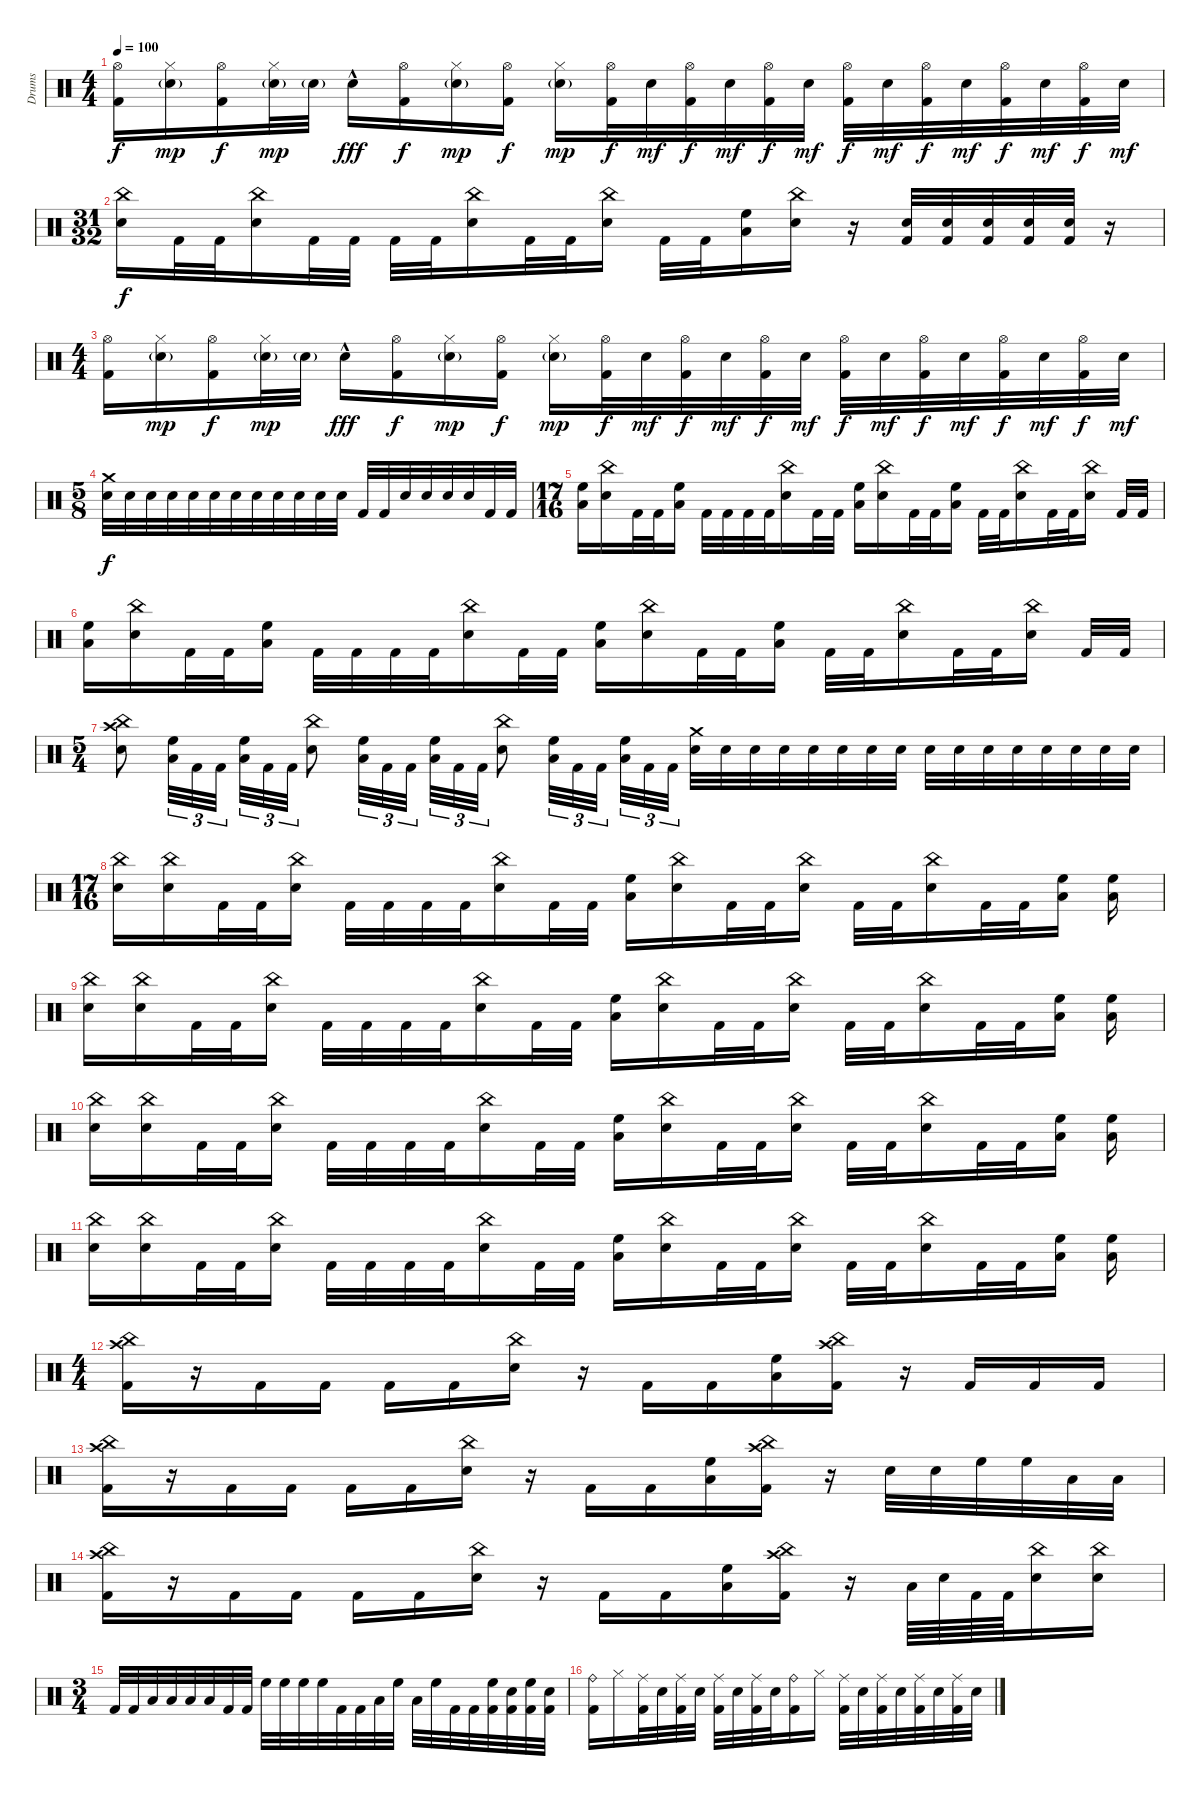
\track ("Drums" "Drums") {instrument percussion}
\staff {score}
\articulation defaults
\ts (4 4)
\tempo 100
\clef neutral
\ks c
("Hi-Hat (open)" "Kick (hit) 2").16{dy f} ("Hi-Hat (closed)" "Electric Snare (hit)"{g}).16{dy mp} ("Hi-Hat (open)" "Kick (hit) 2").16{dy f} ("Hi-Hat (closed)" "Electric Snare (hit)"{g}).32{dy mp} "Electric Snare (hit)"{g}.32 "Electric Snare (hit)"{hac}.16{dy fff} ("Hi-Hat (open)" "Kick (hit) 2").16{dy f} ("Hi-Hat (closed)" "Electric Snare (hit)"{g}).16{dy mp} ("Hi-Hat (open)" "Kick (hit) 2").16{dy f} ("Hi-Hat (closed)" "Electric Snare (hit)"{g}).16{dy mp} ("Hi-Hat (open)" "Kick (hit) 2").32{dy f} "Electric Snare (hit)".32{dy mf} ("Hi-Hat (open)" "Kick (hit) 2").32{dy f} "Electric Snare (hit)".32{dy mf} ("Hi-Hat (open)" "Kick (hit) 2").32{dy f} "Electric Snare (hit)".32{dy mf} ("Hi-Hat (open)" "Kick (hit) 2").32{dy f} "Electric Snare (hit)".32{dy mf} ("Hi-Hat (open)" "Kick (hit) 2").32{dy f} "Electric Snare (hit)".32{dy mf} ("Hi-Hat (open)" "Kick (hit) 2").32{dy f} "Electric Snare (hit)".32{dy mf} ("Hi-Hat (open)" "Kick (hit) 2").32{dy f} "Electric Snare (hit)".32{dy mf} |
\ts (31 32)
("China (hit)" "Electric Snare (hit)").16{dy f} "Kick (hit) 2".32 "Kick (hit) 2".32 ("Electric Snare (hit)" "China (hit)").16 "Kick (hit) 2".32 "Kick (hit) 2".32 "Kick (hit) 2".32 "Kick (hit) 2".32 ("China (hit)" "Electric Snare (hit)").16 "Kick (hit) 2".32 "Kick (hit) 2".32 ("Electric Snare (hit)" "China (hit)").16 "Kick (hit) 2".32 "Kick (hit) 2".32 ("Low Tom (hit)" "High Floor Tom (hit)").16 ("Electric Snare (hit)" "China (hit)").16 r.16 ("Electric Snare (hit)" "Kick (hit) 2").32 ("Electric Snare (hit)" "Kick (hit) 2").32 ("Electric Snare (hit)" "Kick (hit) 2").32 ("Electric Snare (hit)" "Kick (hit) 2").32 ("Electric Snare (hit)" "Kick (hit) 2").32 r.16 |
\ts (4 4)
("Hi-Hat (open)" "Kick (hit) 2").16 ("Hi-Hat (closed)" "Electric Snare (hit)"{g}).16{dy mp} ("Hi-Hat (open)" "Kick (hit) 2").16{dy f} ("Hi-Hat (closed)" "Electric Snare (hit)"{g}).32{dy mp} "Electric Snare (hit)"{g}.32 "Electric Snare (hit)"{hac}.16{dy fff} ("Hi-Hat (open)" "Kick (hit) 2").16{dy f} ("Hi-Hat (closed)" "Electric Snare (hit)"{g}).16{dy mp} ("Hi-Hat (open)" "Kick (hit) 2").16{dy f} ("Hi-Hat (closed)" "Electric Snare (hit)"{g}).16{dy mp} ("Hi-Hat (open)" "Kick (hit) 2").32{dy f} "Electric Snare (hit)".32{dy mf} ("Hi-Hat (open)" "Kick (hit) 2").32{dy f} "Electric Snare (hit)".32{dy mf} ("Hi-Hat (open)" "Kick (hit) 2").32{dy f} "Electric Snare (hit)".32{dy mf} ("Hi-Hat (open)" "Kick (hit) 2").32{dy f} "Electric Snare (hit)".32{dy mf} ("Hi-Hat (open)" "Kick (hit) 2").32{dy f} "Electric Snare (hit)".32{dy mf} ("Hi-Hat (open)" "Kick (hit) 2").32{dy f} "Electric Snare (hit)".32{dy mf} ("Hi-Hat (open)" "Kick (hit) 2").32{dy f} "Electric Snare (hit)".32{dy mf} |
\ts (5 8)
("Crash medium (hit)" "Electric Snare (hit)").32{dy f} "Electric Snare (hit)".32{volume 0} "Electric Snare (hit)".32{volume 16} "Electric Snare (hit)".32 "Electric Snare (hit)".32 "Electric Snare (hit)".32 "Electric Snare (hit)".32 "Electric Snare (hit)".32 "Electric Snare (hit)".32 "Electric Snare (hit)".32 "Electric Snare (hit)".32 "Electric Snare (hit)".32 "Kick (hit) 2".32 "Kick (hit) 2".32 "Electric Snare (hit)".32 "Electric Snare (hit)".32 "Electric Snare (hit)".32 "Electric Snare (hit)".32 "Kick (hit) 2".32 "Kick (hit) 2".32 |
\ts (17 16)
("Low Tom (hit)" "High Floor Tom (hit)").16 ("Electric Snare (hit)" "China (hit)").16 "Kick (hit) 2".32 "Kick (hit) 2".32 ("Low Tom (hit)" "High Floor Tom (hit)").16 "Kick (hit) 2".32 "Kick (hit) 2".32 "Kick (hit) 2".32 "Kick (hit) 2".32 ("Electric Snare (hit)" "China (hit)").16 "Kick (hit) 2".32 "Kick (hit) 2".32 ("Low Tom (hit)" "High Floor Tom (hit)").16 ("Electric Snare (hit)" "China (hit)").16 "Kick (hit) 2".32 "Kick (hit) 2".32 ("Low Tom (hit)" "High Floor Tom (hit)").16 "Kick (hit) 2".32 "Kick (hit) 2".32 ("Electric Snare (hit)" "China (hit)").16 "Kick (hit) 2".32 "Kick (hit) 2".32 ("Electric Snare (hit)" "China (hit)").16 "Kick (hit) 2".32 "Kick (hit) 2".32 |
("Low Tom (hit)" "High Floor Tom (hit)").16 ("Electric Snare (hit)" "China (hit)").16 "Kick (hit) 2".32 "Kick (hit) 2".32 ("Low Tom (hit)" "High Floor Tom (hit)").16 "Kick (hit) 2".32 "Kick (hit) 2".32 "Kick (hit) 2".32 "Kick (hit) 2".32 ("Electric Snare (hit)" "China (hit)").16 "Kick (hit) 2".32 "Kick (hit) 2".32 ("Low Tom (hit)" "High Floor Tom (hit)").16 ("Electric Snare (hit)" "China (hit)").16 "Kick (hit) 2".32 "Kick (hit) 2".32 ("Low Tom (hit)" "High Floor Tom (hit)").16 "Kick (hit) 2".32 "Kick (hit) 2".32 ("Electric Snare (hit)" "China (hit)").16 "Kick (hit) 2".32 "Kick (hit) 2".32 ("Electric Snare (hit)" "China (hit)").16 "Kick (hit) 2".32 "Kick (hit) 2".32 |
\ts (5 4)
("Crash high (hit)" "China (hit)" "Electric Snare (hit)").8 ("Low Tom (hit)" "High Floor Tom (hit)").32{tu (3 2)} "Kick (hit) 2".32{tu (3 2)} "Kick (hit) 2".32{tu (3 2) beam splitsecondary} ("Low Tom (hit)" "High Floor Tom (hit)").32{tu (3 2)} "Kick (hit) 2".32{tu (3 2)} "Kick (hit) 2".32{tu (3 2)} ("China (hit)" "Electric Snare (hit)").8 ("Low Tom (hit)" "High Floor Tom (hit)").32{tu (3 2)} "Kick (hit) 2".32{tu (3 2)} "Kick (hit) 2".32{tu (3 2) beam splitsecondary} ("Low Tom (hit)" "High Floor Tom (hit)").32{tu (3 2)} "Kick (hit) 2".32{tu (3 2)} "Kick (hit) 2".32{tu (3 2)} ("China (hit)" "Electric Snare (hit)").8 ("Low Tom (hit)" "High Floor Tom (hit)").32{tu (3 2)} "Kick (hit) 2".32{tu (3 2)} "Kick (hit) 2".32{tu (3 2) beam splitsecondary} ("Low Tom (hit)" "High Floor Tom (hit)").32{tu (3 2)} "Kick (hit) 2".32{tu (3 2)} "Kick (hit) 2".32{tu (3 2)} ("Crash medium (hit)" "Electric Snare (hit)").32 "Electric Snare (hit)".32{volume 0} "Electric Snare (hit)".32{volume 16} "Electric Snare (hit)".32 "Electric Snare (hit)".32 "Electric Snare (hit)".32 "Electric Snare (hit)".32 "Electric Snare (hit)".32 "Electric Snare (hit)".32 "Electric Snare (hit)".32 "Electric Snare (hit)".32 "Electric Snare (hit)".32 "Electric Snare (hit)".32 "Electric Snare (hit)".32 "Electric Snare (hit)".32 "Electric Snare (hit)".32 |
\ts (17 16)
("Electric Snare (hit)" "China (hit)").16 ("Electric Snare (hit)" "China (hit)").16 "Kick (hit) 2".32 "Kick (hit) 2".32 ("China (hit)" "Electric Snare (hit)").16 "Kick (hit) 2".32 "Kick (hit) 2".32 "Kick (hit) 2".32 "Kick (hit) 2".32 ("Electric Snare (hit)" "China (hit)").16 "Kick (hit) 2".32 "Kick (hit) 2".32 ("Low Tom (hit)" "High Floor Tom (hit)").16 ("Electric Snare (hit)" "China (hit)").16 "Kick (hit) 2".32 "Kick (hit) 2".32 ("China (hit)" "Electric Snare (hit)").16 "Kick (hit) 2".32 "Kick (hit) 2".32 ("Electric Snare (hit)" "China (hit)").16 "Kick (hit) 2".32 "Kick (hit) 2".32 ("Low Tom (hit)" "High Floor Tom (hit)").16 ("Low Tom (hit)" "High Floor Tom (hit)").16 |
("Electric Snare (hit)" "China (hit)").16 ("Electric Snare (hit)" "China (hit)").16 "Kick (hit) 2".32 "Kick (hit) 2".32 ("China (hit)" "Electric Snare (hit)").16 "Kick (hit) 2".32 "Kick (hit) 2".32 "Kick (hit) 2".32 "Kick (hit) 2".32 ("Electric Snare (hit)" "China (hit)").16 "Kick (hit) 2".32 "Kick (hit) 2".32 ("Low Tom (hit)" "High Floor Tom (hit)").16 ("Electric Snare (hit)" "China (hit)").16 "Kick (hit) 2".32 "Kick (hit) 2".32 ("China (hit)" "Electric Snare (hit)").16 "Kick (hit) 2".32 "Kick (hit) 2".32 ("Electric Snare (hit)" "China (hit)").16 "Kick (hit) 2".32 "Kick (hit) 2".32 ("Low Tom (hit)" "High Floor Tom (hit)").16 ("Low Tom (hit)" "High Floor Tom (hit)").16 |
("Electric Snare (hit)" "China (hit)").16 ("Electric Snare (hit)" "China (hit)").16 "Kick (hit) 2".32 "Kick (hit) 2".32 ("China (hit)" "Electric Snare (hit)").16 "Kick (hit) 2".32 "Kick (hit) 2".32 "Kick (hit) 2".32 "Kick (hit) 2".32 ("Electric Snare (hit)" "China (hit)").16 "Kick (hit) 2".32 "Kick (hit) 2".32 ("Low Tom (hit)" "High Floor Tom (hit)").16 ("Electric Snare (hit)" "China (hit)").16 "Kick (hit) 2".32 "Kick (hit) 2".32 ("China (hit)" "Electric Snare (hit)").16 "Kick (hit) 2".32 "Kick (hit) 2".32 ("Electric Snare (hit)" "China (hit)").16 "Kick (hit) 2".32 "Kick (hit) 2".32 ("Low Tom (hit)" "High Floor Tom (hit)").16 ("Low Tom (hit)" "High Floor Tom (hit)").16 |
("Electric Snare (hit)" "China (hit)").16 ("Electric Snare (hit)" "China (hit)").16 "Kick (hit) 2".32 "Kick (hit) 2".32 ("China (hit)" "Electric Snare (hit)").16 "Kick (hit) 2".32 "Kick (hit) 2".32 "Kick (hit) 2".32 "Kick (hit) 2".32 ("Electric Snare (hit)" "China (hit)").16 "Kick (hit) 2".32 "Kick (hit) 2".32 ("Low Tom (hit)" "High Floor Tom (hit)").16 ("Electric Snare (hit)" "China (hit)").16 "Kick (hit) 2".32 "Kick (hit) 2".32 ("China (hit)" "Electric Snare (hit)").16 "Kick (hit) 2".32 "Kick (hit) 2".32 ("Electric Snare (hit)" "China (hit)").16 "Kick (hit) 2".32 "Kick (hit) 2".32 ("Low Tom (hit)" "High Floor Tom (hit)").16 ("Low Tom (hit)" "High Floor Tom (hit)").16 |
\ts (4 4)
("Crash high (hit)" "China (hit)" "Kick (hit) 2").16 r.16 "Kick (hit) 2".16 "Kick (hit) 2".16 "Kick (hit) 2".16 "Kick (hit) 2".16 ("Electric Snare (hit)" "China (hit)").16 r.16 "Kick (hit) 2".16 "Kick (hit) 2".16 ("Low Tom (hit)" "High Floor Tom (hit)").16 ("Crash high (hit)" "China (hit)" "Kick (hit) 2").16 r.16 "Kick (hit) 2".16 "Kick (hit) 2".16 "Kick (hit) 2".16 |
("Crash high (hit)" "China (hit)" "Kick (hit) 2").16 r.16 "Kick (hit) 2".16 "Kick (hit) 2".16 "Kick (hit) 2".16 "Kick (hit) 2".16 ("Electric Snare (hit)" "China (hit)").16 r.16 "Kick (hit) 2".16 "Kick (hit) 2".16 ("Low Tom (hit)" "High Floor Tom (hit)").16 ("Crash high (hit)" "China (hit)" "Kick (hit) 2").16 r.16 "Electric Snare (hit)".32 "Electric Snare (hit)".32 "High Floor Tom (hit)".32 "High Floor Tom (hit)".32 "Low Tom (hit)".32 "Low Tom (hit)".32 |
("Crash high (hit)" "China (hit)" "Kick (hit) 2").16 r.16 "Kick (hit) 2".16 "Kick (hit) 2".16 "Kick (hit) 2".16 "Kick (hit) 2".16 ("Electric Snare (hit)" "China (hit)").16 r.16 "Kick (hit) 2".16 "Kick (hit) 2".16 ("Low Tom (hit)" "High Floor Tom (hit)").16 ("Crash high (hit)" "China (hit)" "Kick (hit) 2").16 r.16 "Low Tom (hit)".64 "Electric Snare (hit)".64 "Kick (hit) 2".64 "Kick (hit) 2".64 ("China (hit)" "Electric Snare (hit)").16 ("Electric Snare (hit)" "China (hit)").16 |
\ts (3 4)
"Kick (hit) 2".32 "Kick (hit) 2".32 "Low Tom (hit)".32 "Low Tom (hit)".32 "Low Tom (hit)".32 "Low Tom (hit)".32 "Kick (hit) 2".32 "Kick (hit) 2".32 "High Floor Tom (hit)".32 "High Floor Tom (hit)".32 "High Floor Tom (hit)".32 "High Floor Tom (hit)".32 "Kick (hit) 2".32 "Kick (hit) 2".32 "Low Tom (hit)".32 "High Floor Tom (hit)".32 "Low Tom (hit)".32 "High Floor Tom (hit)".32 "Kick (hit) 2".32 "Kick (hit) 2".32 ("High Floor Tom (hit)" "Kick (hit) 2").32 ("Electric Snare (hit)" "Kick (hit) 2").32 ("High Floor Tom (hit)" "Kick (hit) 2").32 ("Electric Snare (hit)" "Kick (hit) 2").32 |
("Ride (bell)" "Kick (hit) 2").16 "Hi-Hat (closed)".16{volume 5} ("Ride (middle)" "Kick (hit) 2").32{volume 16} "Electric Snare (hit)".32 ("Kick (hit) 2" "Ride (middle)").32 "Electric Snare (hit)".32 ("Kick (hit) 2" "Ride (middle)").32 "Electric Snare (hit)".32 ("Kick (hit) 2" "Ride (middle)").32 "Electric Snare (hit)".32 ("Kick (hit) 2" "Ride (bell)").16 "Hi-Hat (closed)".16{volume 5} ("Ride (middle)" "Kick (hit) 2").32{volume 16} "Electric Snare (hit)".32 ("Kick (hit) 2" "Ride (middle)").32 "Electric Snare (hit)".32 ("Kick (hit) 2" "Ride (middle)").32 "Electric Snare (hit)".32 ("Kick (hit) 2" "Ride (middle)").32 "Electric Snare (hit)".32
